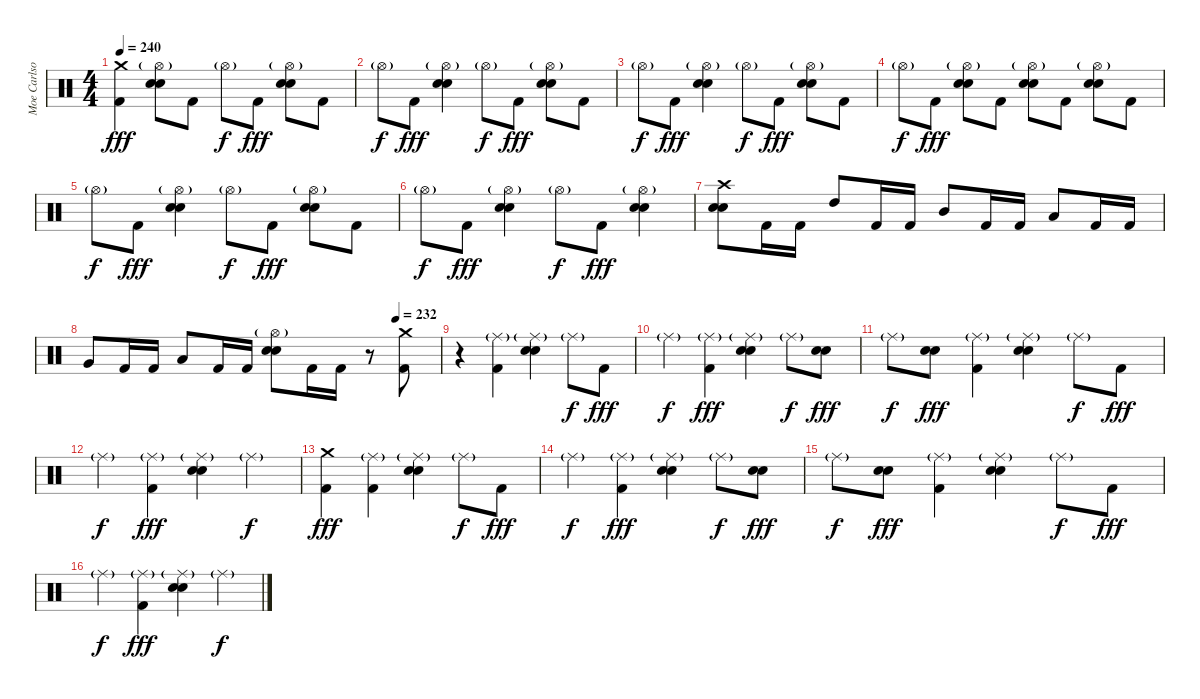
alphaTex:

\track ("Moe Carlson" "Moe Carlso") {instrument percussion}
\staff {score}
\articulation defaults
\ts (4 4)
\tempo 240
\clef neutral
\ks c
("Crash medium (hit)" "Kick (hit) 2").4{dy fff} ("Hi-Hat (open)"{g} "Snare (hit) 2" "Electric Snare (hit)").8 "Kick (hit) 2".8 "Hi-Hat (open)"{g}.8{dy f} "Kick (hit) 2".8{dy fff} ("Hi-Hat (open)"{g} "Snare (hit) 2" "Electric Snare (hit)").8 "Kick (hit) 2".8 |
"Hi-Hat (open)"{g}.8{dy f} "Kick (hit) 2".8{dy fff} ("Hi-Hat (open)"{g} "Snare (hit) 2" "Electric Snare (hit)").4 "Hi-Hat (open)"{g}.8{dy f} "Kick (hit) 2".8{dy fff} ("Hi-Hat (open)"{g} "Snare (hit) 2" "Electric Snare (hit)").8 "Kick (hit) 2".8 |
"Hi-Hat (open)"{g}.8{dy f} "Kick (hit) 2".8{dy fff} ("Hi-Hat (open)"{g} "Snare (hit) 2" "Electric Snare (hit)").4 "Hi-Hat (open)"{g}.8{dy f} "Kick (hit) 2".8{dy fff} ("Hi-Hat (open)"{g} "Snare (hit) 2" "Electric Snare (hit)").8 "Kick (hit) 2".8 |
"Hi-Hat (open)"{g}.8{dy f} "Kick (hit) 2".8{dy fff} ("Hi-Hat (open)"{g} "Snare (hit) 2" "Electric Snare (hit)").8 "Kick (hit) 2".8 ("Hi-Hat (open)"{g} "Snare (hit) 2" "Electric Snare (hit)").8 "Kick (hit) 2".8 ("Hi-Hat (open)"{g} "Snare (hit) 2" "Electric Snare (hit)").8 "Kick (hit) 2".8 |
"Hi-Hat (open)"{g}.8{dy f} "Kick (hit) 2".8{dy fff} ("Hi-Hat (open)"{g} "Snare (hit) 2" "Electric Snare (hit)").4 "Hi-Hat (open)"{g}.8{dy f} "Kick (hit) 2".8{dy fff} ("Hi-Hat (open)"{g} "Snare (hit) 2" "Electric Snare (hit)").8 "Kick (hit) 2".8 |
"Hi-Hat (open)"{g}.8{dy f} "Kick (hit) 2".8{dy fff} ("Hi-Hat (open)"{g} "Snare (hit) 2" "Electric Snare (hit)").4 "Hi-Hat (open)"{g}.8{dy f} "Kick (hit) 2".8{dy fff} ("Hi-Hat (open)"{g} "Snare (hit) 2" "Electric Snare (hit)").4 |
("Crash high (hit)" "Snare (hit) 2" "Electric Snare (hit)").8 "Kick (hit) 2".16 "Kick (hit) 2".16 "High Tom (hit)".8 "Kick (hit) 2".16 "Kick (hit) 2".16 "Mid Tom (hit)".8 "Kick (hit) 2".16 "Kick (hit) 2".16 "Low Tom (hit)".8 "Kick (hit) 2".16 "Kick (hit) 2".16 |
\tempo (232 0.875)
"Very Low Tom (hit)".8 "Kick (hit) 2".16 "Kick (hit) 2".16 "Low Floor Tom (hit)".8 "Kick (hit) 2".16 "Kick (hit) 2".16 ("Hi-Hat (open)"{g} "Snare (hit) 2" "Electric Snare (hit)").8 "Kick (hit) 2".16 "Kick (hit) 2".16 r.8 ("Crash medium (hit)" "Kick (hit) 2").8 |
r.4 ("Ride (middle)"{g} "Kick (hit) 2").4 ("Ride (middle)"{g} "Snare (hit) 2" "Electric Snare (hit)").4 "Ride (middle)"{g}.8{dy f} "Kick (hit) 2".8{dy fff} |
"Ride (middle)"{g}.4{dy f} ("Ride (middle)"{g} "Kick (hit) 2").4{dy fff} ("Ride (middle)"{g} "Snare (hit) 2" "Electric Snare (hit)").4 "Ride (middle)"{g}.8{dy f} ("Snare (hit) 2" "Electric Snare (hit)").8{dy fff} |
"Ride (middle)"{g}.8{dy f} ("Snare (hit) 2" "Electric Snare (hit)").8{dy fff} ("Ride (middle)"{g} "Kick (hit) 2").4 ("Ride (middle)"{g} "Snare (hit) 2" "Electric Snare (hit)").4 "Ride (middle)"{g}.8{dy f} "Kick (hit) 2".8{dy fff} |
"Ride (middle)"{g}.4{dy f} ("Ride (middle)"{g} "Kick (hit) 2").4{dy fff} ("Ride (middle)"{g} "Snare (hit) 2" "Electric Snare (hit)").4 "Ride (middle)"{g}.4{dy f} |
("Crash medium (hit)" "Kick (hit) 2").4{dy fff} ("Ride (middle)"{g} "Kick (hit) 2").4 ("Ride (middle)"{g} "Snare (hit) 2" "Electric Snare (hit)").4 "Ride (middle)"{g}.8{dy f} "Kick (hit) 2".8{dy fff} |
"Ride (middle)"{g}.4{dy f} ("Ride (middle)"{g} "Kick (hit) 2").4{dy fff} ("Ride (middle)"{g} "Snare (hit) 2" "Electric Snare (hit)").4 "Ride (middle)"{g}.8{dy f} ("Snare (hit) 2" "Electric Snare (hit)").8{dy fff} |
"Ride (middle)"{g}.8{dy f} ("Snare (hit) 2" "Electric Snare (hit)").8{dy fff} ("Ride (middle)"{g} "Kick (hit) 2").4 ("Ride (middle)"{g} "Snare (hit) 2" "Electric Snare (hit)").4 "Ride (middle)"{g}.8{dy f} "Kick (hit) 2".8{dy fff} |
"Ride (middle)"{g}.4{dy f} ("Ride (middle)"{g} "Kick (hit) 2").4{dy fff} ("Ride (middle)"{g} "Snare (hit) 2" "Electric Snare (hit)").4 "Ride (middle)"{g}.4{dy f}
